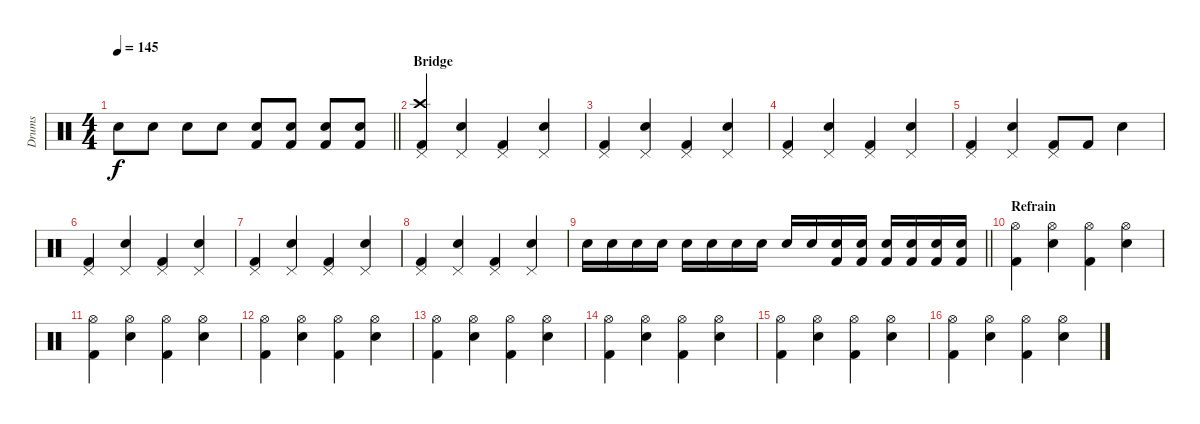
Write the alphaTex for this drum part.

\track ("Drums" "Drums") {instrument percussion}
\staff {score}
\articulation defaults
\ts (4 4)
\tempo 145
\clef neutral
\barLineRight lightlight
\ks c "Electric Snare (hit)".8{dy f} "Electric Snare (hit)".8 "Electric Snare (hit)".8 "Electric Snare (hit)".8
("Kick (hit) 2" "Electric Snare (hit)").8 ("Kick (hit) 2" "Electric Snare (hit)").8 ("Kick (hit) 2" "Electric Snare (hit)").8 ("Kick (hit) 2" "Electric Snare (hit)").8 |
\section ("" "Bridge")
("Kick (hit) 2" "Crash high (hit)" "Pedal Hi-Hat (hit)").4 ("Electric Snare (hit)" "Pedal Hi-Hat (hit)").4 ("Kick (hit) 2" "Pedal Hi-Hat (hit)").4 ("Electric Snare (hit)" "Pedal Hi-Hat (hit)").4 |
("Kick (hit) 2" "Pedal Hi-Hat (hit)").4 ("Electric Snare (hit)" "Pedal Hi-Hat (hit)").4 ("Kick (hit) 2" "Pedal Hi-Hat (hit)").4 ("Electric Snare (hit)" "Pedal Hi-Hat (hit)").4 |
("Kick (hit) 2" "Pedal Hi-Hat (hit)").4 ("Electric Snare (hit)" "Pedal Hi-Hat (hit)").4 ("Kick (hit) 2" "Pedal Hi-Hat (hit)").4 ("Electric Snare (hit)" "Pedal Hi-Hat (hit)").4 |
("Kick (hit) 2" "Pedal Hi-Hat (hit)").4 ("Electric Snare (hit)" "Pedal Hi-Hat (hit)").4 ("Kick (hit) 2" "Pedal Hi-Hat (hit)").8 "Kick (hit) 2".8 "Electric Snare (hit)".4 |
("Kick (hit) 2" "Pedal Hi-Hat (hit)").4 ("Electric Snare (hit)" "Pedal Hi-Hat (hit)").4 ("Kick (hit) 2" "Pedal Hi-Hat (hit)").4 ("Electric Snare (hit)" "Pedal Hi-Hat (hit)").4 |
("Kick (hit) 2" "Pedal Hi-Hat (hit)").4 ("Electric Snare (hit)" "Pedal Hi-Hat (hit)").4 ("Kick (hit) 2" "Pedal Hi-Hat (hit)").4 ("Electric Snare (hit)" "Pedal Hi-Hat (hit)").4 |
("Kick (hit) 2" "Pedal Hi-Hat (hit)").4 ("Electric Snare (hit)" "Pedal Hi-Hat (hit)").4 ("Kick (hit) 2" "Pedal Hi-Hat (hit)").4 ("Electric Snare (hit)" "Pedal Hi-Hat (hit)").4 |
\barLineRight lightlight "Electric Snare (hit)".16 "Electric Snare (hit)".16 "Electric Snare (hit)".16 "Electric Snare (hit)".16 "Electric Snare (hit)".16 "Electric Snare (hit)".16 "Electric Snare (hit)".16 "Electric Snare (hit)".16 "Electric Snare (hit)".16 "Electric Snare (hit)".16
("Electric Snare (hit)" "Kick (hit) 2").16 ("Electric Snare (hit)" "Kick (hit) 2").16 ("Electric Snare (hit)" "Kick (hit) 2").16 ("Electric Snare (hit)" "Kick (hit) 2").16 ("Electric Snare (hit)" "Kick (hit) 2").16 ("Electric Snare (hit)" "Kick (hit) 2").16 |
\section ("" "Refrain")
("Kick (hit) 2" "Hi-Hat (open)").4 ("Electric Snare (hit)" "Hi-Hat (open)").4 ("Kick (hit) 2" "Hi-Hat (open)").4 ("Electric Snare (hit)" "Hi-Hat (open)").4 |
("Kick (hit) 2" "Hi-Hat (open)").4 ("Electric Snare (hit)" "Hi-Hat (open)").4 ("Kick (hit) 2" "Hi-Hat (open)").4 ("Electric Snare (hit)" "Hi-Hat (open)").4 |
("Kick (hit) 2" "Hi-Hat (open)").4 ("Electric Snare (hit)" "Hi-Hat (open)").4 ("Kick (hit) 2" "Hi-Hat (open)").4 ("Electric Snare (hit)" "Hi-Hat (open)").4 |
("Kick (hit) 2" "Hi-Hat (open)").4 ("Electric Snare (hit)" "Hi-Hat (open)").4 ("Kick (hit) 2" "Hi-Hat (open)").4 ("Electric Snare (hit)" "Hi-Hat (open)").4 |
("Kick (hit) 2" "Hi-Hat (open)").4 ("Electric Snare (hit)" "Hi-Hat (open)").4 ("Kick (hit) 2" "Hi-Hat (open)").4 ("Electric Snare (hit)" "Hi-Hat (open)").4 |
("Kick (hit) 2" "Hi-Hat (open)").4 ("Electric Snare (hit)" "Hi-Hat (open)").4 ("Kick (hit) 2" "Hi-Hat (open)").4 ("Electric Snare (hit)" "Hi-Hat (open)").4 |
("Kick (hit) 2" "Hi-Hat (open)").4 ("Electric Snare (hit)" "Hi-Hat (open)").4 ("Kick (hit) 2" "Hi-Hat (open)").4 ("Electric Snare (hit)" "Hi-Hat (open)").4
